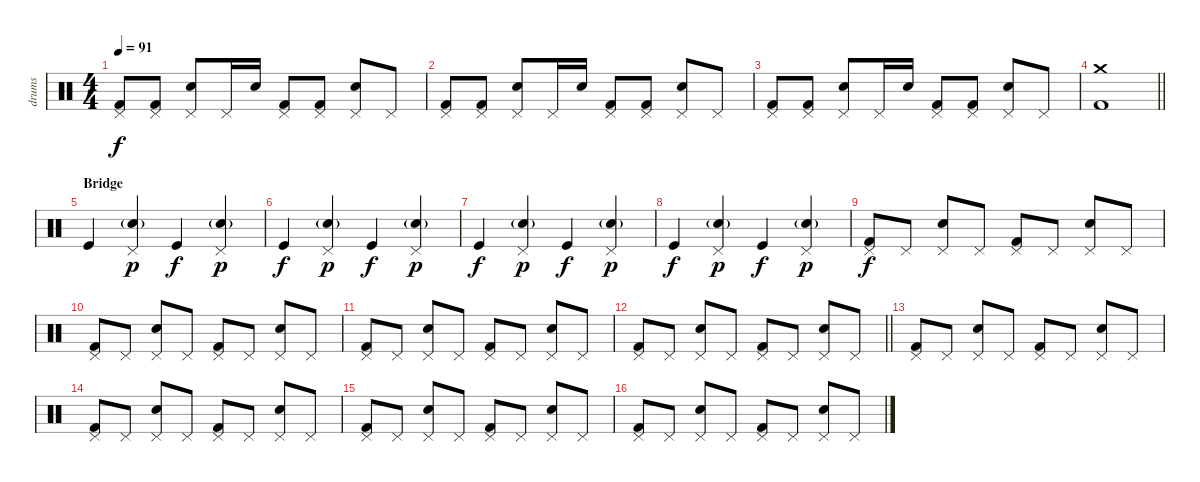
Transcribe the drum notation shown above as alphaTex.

\track ("drums" "drums") {instrument percussion}
\staff {score}
\articulation defaults
\ts (4 4)
\tempo 91
\clef neutral
\ks c
("Pedal Hi-Hat (hit)" "Kick (hit) 2").8{dy f} ("Pedal Hi-Hat (hit)" "Kick (hit) 2").8 ("Pedal Hi-Hat (hit)" "Electric Snare (hit)").8 "Pedal Hi-Hat (hit)".16 "Electric Snare (hit)".16 ("Pedal Hi-Hat (hit)" "Kick (hit) 2").8 ("Pedal Hi-Hat (hit)" "Kick (hit) 2").8 ("Pedal Hi-Hat (hit)" "Electric Snare (hit)").8 "Pedal Hi-Hat (hit)".8 |
("Pedal Hi-Hat (hit)" "Kick (hit) 2").8 ("Pedal Hi-Hat (hit)" "Kick (hit) 2").8 ("Pedal Hi-Hat (hit)" "Electric Snare (hit)").8 "Pedal Hi-Hat (hit)".16 "Electric Snare (hit)".16 ("Pedal Hi-Hat (hit)" "Kick (hit) 2").8 ("Pedal Hi-Hat (hit)" "Kick (hit) 2").8 ("Pedal Hi-Hat (hit)" "Electric Snare (hit)").8 "Pedal Hi-Hat (hit)".8 |
("Pedal Hi-Hat (hit)" "Kick (hit) 2").8 ("Pedal Hi-Hat (hit)" "Kick (hit) 2").8 ("Pedal Hi-Hat (hit)" "Electric Snare (hit)").8 "Pedal Hi-Hat (hit)".16 "Electric Snare (hit)".16 ("Pedal Hi-Hat (hit)" "Kick (hit) 2").8 ("Pedal Hi-Hat (hit)" "Kick (hit) 2").8 ("Pedal Hi-Hat (hit)" "Electric Snare (hit)").8 "Pedal Hi-Hat (hit)".8 |
\barLineRight lightlight
("Crash medium (hit)" "Kick (hit) 2").1 |
\section ("" "Bridge")
"Kick (hit)".4 ("Pedal Hi-Hat (hit)" "Electric Snare (hit)"{g}).4{dy p} "Kick (hit)".4{dy f} ("Pedal Hi-Hat (hit)" "Electric Snare (hit)"{g}).4{dy p} |
"Kick (hit)".4{dy f} ("Pedal Hi-Hat (hit)" "Electric Snare (hit)"{g}).4{dy p} "Kick (hit)".4{dy f} ("Pedal Hi-Hat (hit)" "Electric Snare (hit)"{g}).4{dy p} |
"Kick (hit)".4{dy f} ("Pedal Hi-Hat (hit)" "Electric Snare (hit)"{g}).4{dy p} "Kick (hit)".4{dy f} ("Pedal Hi-Hat (hit)" "Electric Snare (hit)"{g}).4{dy p} |
"Kick (hit)".4{dy f} ("Pedal Hi-Hat (hit)" "Electric Snare (hit)"{g}).4{dy p} "Kick (hit)".4{dy f} ("Pedal Hi-Hat (hit)" "Electric Snare (hit)"{g}).4{dy p} |
("Pedal Hi-Hat (hit)" "Kick (hit) 2").8{dy f} "Pedal Hi-Hat (hit)".8 ("Pedal Hi-Hat (hit)" "Electric Snare (hit)").8 "Pedal Hi-Hat (hit)".8 ("Pedal Hi-Hat (hit)" "Kick (hit) 2").8 "Pedal Hi-Hat (hit)".8 ("Pedal Hi-Hat (hit)" "Electric Snare (hit)").8 "Pedal Hi-Hat (hit)".8 |
("Pedal Hi-Hat (hit)" "Kick (hit) 2").8 "Pedal Hi-Hat (hit)".8 ("Pedal Hi-Hat (hit)" "Electric Snare (hit)").8 "Pedal Hi-Hat (hit)".8 ("Pedal Hi-Hat (hit)" "Kick (hit) 2").8 "Pedal Hi-Hat (hit)".8 ("Pedal Hi-Hat (hit)" "Electric Snare (hit)").8 "Pedal Hi-Hat (hit)".8 |
("Pedal Hi-Hat (hit)" "Kick (hit) 2").8 "Pedal Hi-Hat (hit)".8 ("Pedal Hi-Hat (hit)" "Electric Snare (hit)").8 "Pedal Hi-Hat (hit)".8 ("Pedal Hi-Hat (hit)" "Kick (hit) 2").8 "Pedal Hi-Hat (hit)".8 ("Pedal Hi-Hat (hit)" "Electric Snare (hit)").8 "Pedal Hi-Hat (hit)".8 |
\barLineRight lightlight
("Pedal Hi-Hat (hit)" "Kick (hit) 2").8 "Pedal Hi-Hat (hit)".8 ("Pedal Hi-Hat (hit)" "Electric Snare (hit)").8 "Pedal Hi-Hat (hit)".8 ("Pedal Hi-Hat (hit)" "Kick (hit) 2").8 "Pedal Hi-Hat (hit)".8 ("Pedal Hi-Hat (hit)" "Electric Snare (hit)").8 "Pedal Hi-Hat (hit)".8 |
("Pedal Hi-Hat (hit)" "Kick (hit) 2").8 "Pedal Hi-Hat (hit)".8 ("Pedal Hi-Hat (hit)" "Electric Snare (hit)").8 "Pedal Hi-Hat (hit)".8 ("Pedal Hi-Hat (hit)" "Kick (hit) 2").8 "Pedal Hi-Hat (hit)".8 ("Pedal Hi-Hat (hit)" "Electric Snare (hit)").8 "Pedal Hi-Hat (hit)".8 |
("Pedal Hi-Hat (hit)" "Kick (hit) 2").8 "Pedal Hi-Hat (hit)".8 ("Pedal Hi-Hat (hit)" "Electric Snare (hit)").8 "Pedal Hi-Hat (hit)".8 ("Pedal Hi-Hat (hit)" "Kick (hit) 2").8 "Pedal Hi-Hat (hit)".8 ("Pedal Hi-Hat (hit)" "Electric Snare (hit)").8 "Pedal Hi-Hat (hit)".8 |
("Pedal Hi-Hat (hit)" "Kick (hit) 2").8 "Pedal Hi-Hat (hit)".8 ("Pedal Hi-Hat (hit)" "Electric Snare (hit)").8 "Pedal Hi-Hat (hit)".8 ("Pedal Hi-Hat (hit)" "Kick (hit) 2").8 "Pedal Hi-Hat (hit)".8 ("Pedal Hi-Hat (hit)" "Electric Snare (hit)").8 "Pedal Hi-Hat (hit)".8 |
("Pedal Hi-Hat (hit)" "Kick (hit) 2").8 "Pedal Hi-Hat (hit)".8 ("Pedal Hi-Hat (hit)" "Electric Snare (hit)").8 "Pedal Hi-Hat (hit)".8 ("Pedal Hi-Hat (hit)" "Kick (hit) 2").8 "Pedal Hi-Hat (hit)".8 ("Pedal Hi-Hat (hit)" "Electric Snare (hit)").8 "Pedal Hi-Hat (hit)".8
